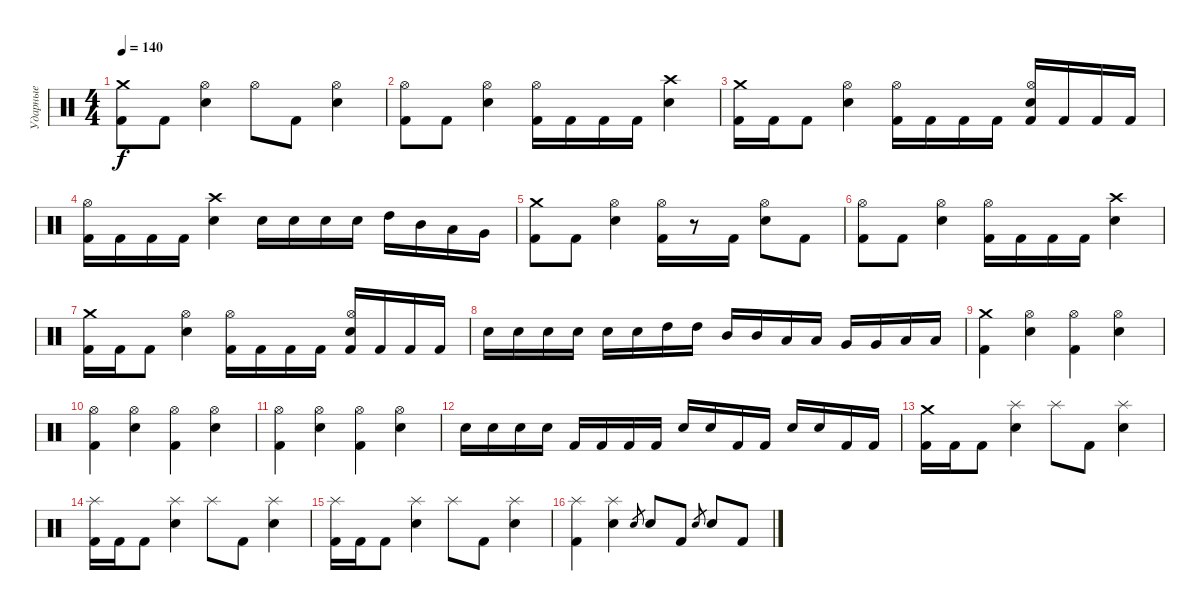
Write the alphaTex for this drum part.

\track ("Ударные" "Ударные") {instrument percussion}
\staff {score}
\articulation defaults
\ts (4 4)
\tempo 140
\clef neutral
\ks c
("Crash medium (hit)" "Kick (hit) 2").8{dy f} "Kick (hit) 2".8 ("Hi-Hat (open)" "Electric Snare (hit)").4 "Hi-Hat (open)".8 "Kick (hit) 2".8 ("Hi-Hat (open)" "Electric Snare (hit)").4 |
("Hi-Hat (open)" "Kick (hit) 2").8 "Kick (hit) 2".8 ("Hi-Hat (open)" "Electric Snare (hit)").4 ("Hi-Hat (open)" "Kick (hit) 2").16 "Kick (hit) 2".16 "Kick (hit) 2".16 "Kick (hit) 2".16 ("Crash high (hit)" "Electric Snare (hit)").4 |
("Crash medium (hit)" "Kick (hit) 2").16 "Kick (hit) 2".16 "Kick (hit) 2".8 ("Hi-Hat (open)" "Electric Snare (hit)").4 ("Hi-Hat (open)" "Kick (hit) 2").16 "Kick (hit) 2".16 "Kick (hit) 2".16 "Kick (hit) 2".16 ("Hi-Hat (open)" "Electric Snare (hit)" "Kick (hit) 2").16 "Kick (hit) 2".16 "Kick (hit) 2".16 "Kick (hit) 2".16 |
("Hi-Hat (open)" "Kick (hit) 2").16 "Kick (hit) 2".16 "Kick (hit) 2".16 "Kick (hit) 2".16 ("Crash high (hit)" "Electric Snare (hit)").4 "Electric Snare (hit)".16 "Electric Snare (hit)".16 "Electric Snare (hit)".16 "Electric Snare (hit)".16 "High Tom (hit)".16 "Mid Tom (hit)".16 "Low Tom (hit)".16 "Very Low Tom (hit)".16 |
("Crash medium (hit)" "Kick (hit) 2").8 "Kick (hit) 2".8 ("Hi-Hat (open)" "Electric Snare (hit)").4 ("Hi-Hat (open)" "Kick (hit) 2").16 r.8 "Kick (hit) 2".16 ("Hi-Hat (open)" "Electric Snare (hit)").8 "Kick (hit) 2".8 |
("Hi-Hat (open)" "Kick (hit) 2").8 "Kick (hit) 2".8 ("Hi-Hat (open)" "Electric Snare (hit)").4 ("Hi-Hat (open)" "Kick (hit) 2").16 "Kick (hit) 2".16 "Kick (hit) 2".16 "Kick (hit) 2".16 ("Crash high (hit)" "Electric Snare (hit)").4 |
("Crash medium (hit)" "Kick (hit) 2").16 "Kick (hit) 2".16 "Kick (hit) 2".8 ("Hi-Hat (open)" "Electric Snare (hit)").4 ("Hi-Hat (open)" "Kick (hit) 2").16 "Kick (hit) 2".16 "Kick (hit) 2".16 "Kick (hit) 2".16 ("Hi-Hat (open)" "Electric Snare (hit)" "Kick (hit) 2").16 "Kick (hit) 2".16 "Kick (hit) 2".16 "Kick (hit) 2".16 |
"Electric Snare (hit)".16 "Electric Snare (hit)".16 "Electric Snare (hit)".16 "Electric Snare (hit)".16 "Electric Snare (hit)".16 "Electric Snare (hit)".16 "High Tom (hit)".16 "High Tom (hit)".16 "Mid Tom (hit)".16 "Mid Tom (hit)".16 "Low Tom (hit)".16 "Low Tom (hit)".16 "Very Low Tom (hit)".16 "Very Low Tom (hit)".16 "Low Floor Tom (hit)".16 "Low Floor Tom (hit)".16 |
("Crash medium (hit)" "Kick (hit) 2").4 ("Hi-Hat (open)" "Electric Snare (hit)").4 ("Hi-Hat (open)" "Kick (hit) 2").4 ("Hi-Hat (open)" "Electric Snare (hit)").4 |
("Hi-Hat (open)" "Kick (hit) 2").4 ("Hi-Hat (open)" "Electric Snare (hit)").4 ("Hi-Hat (open)" "Kick (hit) 2").4 ("Hi-Hat (open)" "Electric Snare (hit)").4 |
("Hi-Hat (open)" "Kick (hit) 2").4 ("Hi-Hat (open)" "Electric Snare (hit)").4 ("Hi-Hat (open)" "Kick (hit) 2").4 ("Hi-Hat (open)" "Electric Snare (hit)").4 |
"Electric Snare (hit)".16 "Electric Snare (hit)".16 "Electric Snare (hit)".16 "Electric Snare (hit)".16 "Kick (hit) 2".16 "Kick (hit) 2".16 "Kick (hit) 2".16 "Kick (hit) 2".16 "Electric Snare (hit)".16 "Electric Snare (hit)".16 "Kick (hit) 2".16 "Kick (hit) 2".16 "Electric Snare (hit)".16 "Electric Snare (hit)".16 "Kick (hit) 2".16 "Kick (hit) 2".16 |
("Crash medium (hit)" "Kick (hit) 2").16 "Kick (hit) 2".16 "Kick (hit) 2".8 ("Splash (hit)" "Electric Snare (hit)").4 "Splash (hit)".8 "Kick (hit) 2".8 ("Splash (hit)" "Electric Snare (hit)").4 |
("Splash (hit)" "Kick (hit) 2").16 "Kick (hit) 2".16 "Kick (hit) 2".8 ("Splash (hit)" "Electric Snare (hit)").4 "Splash (hit)".8 "Kick (hit) 2".8 ("Splash (hit)" "Electric Snare (hit)").4 |
("Splash (hit)" "Kick (hit) 2").16 "Kick (hit) 2".16 "Kick (hit) 2".8 ("Splash (hit)" "Electric Snare (hit)").4 "Splash (hit)".8 "Kick (hit) 2".8 ("Splash (hit)" "Electric Snare (hit)").4 |
("Splash (hit)" "Kick (hit) 2").4 ("Splash (hit)" "Electric Snare (hit)").4 "Electric Snare (hit)".8{gr} "Electric Snare (hit)".8 "Kick (hit) 2".8 "Electric Snare (hit)".8{gr} "Electric Snare (hit)".8 "Kick (hit) 2".8
